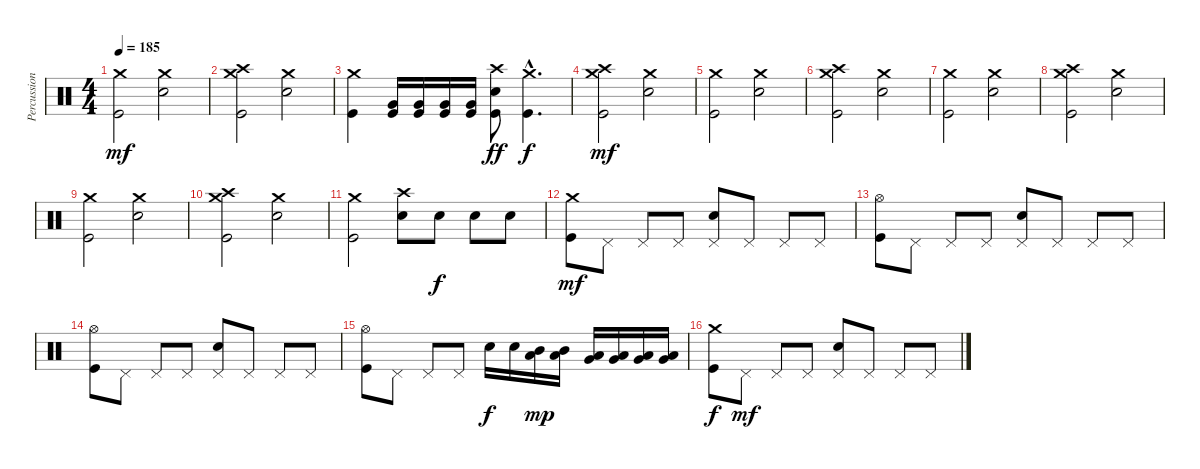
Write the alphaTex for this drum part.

\track ("Percussions" "Percussion") {instrument percussion}
\staff {score}
\articulation defaults
\ts (4 4)
\tempo 185
\clef neutral
\ks c
("Kick (hit)" "Crash medium (hit)").2{dy mf} ("Electric Snare (hit)" "Crash medium (hit)").2 |
("Kick (hit)" "Crash medium (hit)" "Crash high (hit)").2 ("Electric Snare (hit)" "Crash medium (hit)").2 |
("Kick (hit)" "Crash medium (hit)").4 ("Kick (hit)" "Very Low Tom (hit)").16 ("Kick (hit)" "Very Low Tom (hit)").16 ("Kick (hit)" "Very Low Tom (hit)").16 ("Kick (hit)" "Very Low Tom (hit)").16 ("Kick (hit)" "Electric Snare (hit)" "Crash high (hit)").8{dy ff} ("Kick (hit)"{hac} "Crash medium (hit)"{hac}).4{d dy f} |
("Kick (hit)" "Crash medium (hit)" "Crash high (hit)").2{dy mf} ("Electric Snare (hit)" "Crash medium (hit)").2 |
("Kick (hit)" "Crash medium (hit)").2 ("Electric Snare (hit)" "Crash medium (hit)").2 |
("Kick (hit)" "Crash medium (hit)" "Crash high (hit)").2 ("Electric Snare (hit)" "Crash medium (hit)").2 |
("Kick (hit)" "Crash medium (hit)").2 ("Electric Snare (hit)" "Crash medium (hit)").2 |
("Kick (hit)" "Crash medium (hit)" "Crash high (hit)").2 ("Electric Snare (hit)" "Crash medium (hit)").2 |
("Kick (hit)" "Crash medium (hit)").2 ("Electric Snare (hit)" "Crash medium (hit)").2 |
("Kick (hit)" "Crash medium (hit)" "Crash high (hit)").2 ("Electric Snare (hit)" "Crash medium (hit)").2 |
("Kick (hit)" "Crash medium (hit)").2 ("Electric Snare (hit)" "Crash high (hit)").8 "Electric Snare (hit)".8{dy f} "Electric Snare (hit)".8 "Electric Snare (hit)".8 |
("Kick (hit)" "Crash medium (hit)").8{dy mf} "Pedal Hi-Hat (hit)".8 "Pedal Hi-Hat (hit)".8 "Pedal Hi-Hat (hit)".8 ("Electric Snare (hit)" "Pedal Hi-Hat (hit)").8 "Pedal Hi-Hat (hit)".8 "Pedal Hi-Hat (hit)".8 "Pedal Hi-Hat (hit)".8 |
("Kick (hit)" "Hi-Hat (open)").8 "Pedal Hi-Hat (hit)".8 "Pedal Hi-Hat (hit)".8 "Pedal Hi-Hat (hit)".8 ("Electric Snare (hit)" "Pedal Hi-Hat (hit)").8 "Pedal Hi-Hat (hit)".8 "Pedal Hi-Hat (hit)".8 "Pedal Hi-Hat (hit)".8 |
("Kick (hit)" "Hi-Hat (open)").8 "Pedal Hi-Hat (hit)".8 "Pedal Hi-Hat (hit)".8 "Pedal Hi-Hat (hit)".8 ("Electric Snare (hit)" "Pedal Hi-Hat (hit)").8 "Pedal Hi-Hat (hit)".8 "Pedal Hi-Hat (hit)".8 "Pedal Hi-Hat (hit)".8 |
("Kick (hit)" "Hi-Hat (open)").8 "Pedal Hi-Hat (hit)".8 "Pedal Hi-Hat (hit)".8 "Pedal Hi-Hat (hit)".8 "Electric Snare (hit)".16{dy f} "Electric Snare (hit)".16 ("Mid Tom (hit)" "Low Tom (hit)").16{dy mp} ("Mid Tom (hit)" "Low Tom (hit)").16 ("Low Tom (hit)" "Very Low Tom (hit)").16 ("Low Tom (hit)" "Very Low Tom (hit)").16 ("Very Low Tom (hit)" "Low Floor Tom (hit)").16 ("Very Low Tom (hit)" "Low Floor Tom (hit)").16 |
("Kick (hit)" "Crash medium (hit)").8{dy f} "Pedal Hi-Hat (hit)".8{dy mf} "Pedal Hi-Hat (hit)".8 "Pedal Hi-Hat (hit)".8 ("Electric Snare (hit)" "Pedal Hi-Hat (hit)").8 "Pedal Hi-Hat (hit)".8 "Pedal Hi-Hat (hit)".8 "Pedal Hi-Hat (hit)".8
